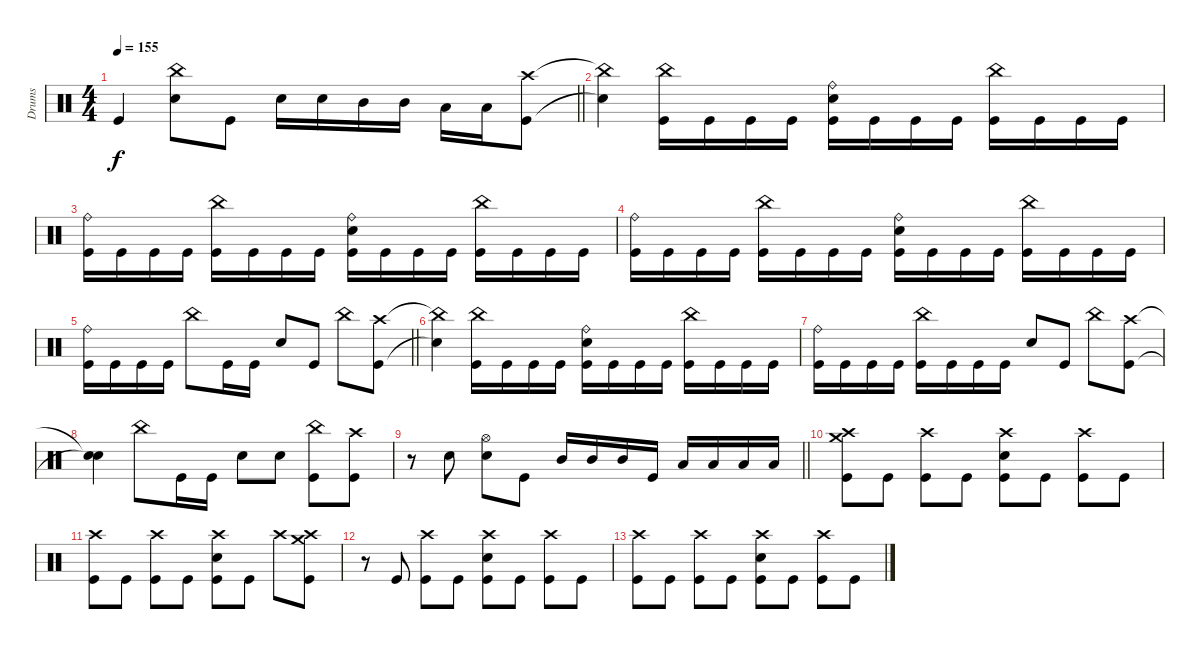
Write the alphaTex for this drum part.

\track ("Drums" "Drums") {instrument percussion}
\staff
\articulation defaults
\ts (4 4)
\tempo 155
\clef neutral
\barLineRight lightlight
\ks c "Kick (hit)"{t}.4{dy f}
("China (hit)" "Electric Snare (hit)").8 "Kick (hit)".8 "Electric Snare (hit)".16 "Electric Snare (hit)".16 "Mid Tom (hit)".16 "Mid Tom (hit)".16 "Low Tom (hit)".16 "Low Tom (hit)".16 ("Crash high (hit)" "Kick (hit)").8 |
("China (hit)"{t} "Snare (hit)"{t}).4 ("China (hit)" "Kick (hit)").16 "Kick (hit)".16 "Kick (hit)".16 "Kick (hit)".16 ("Ride (bell)" "Electric Snare (hit)" "Kick (hit)").16 "Kick (hit)".16 "Kick (hit)".16 "Kick (hit)".16 ("China (hit)" "Kick (hit)").16 "Kick (hit)".16 "Kick (hit)".16 "Kick (hit)".16 |
("Ride (bell)" "Kick (hit)").16 "Kick (hit)".16 "Kick (hit)".16 "Kick (hit)".16 ("China (hit)" "Kick (hit)").16 "Kick (hit)".16 "Kick (hit)".16 "Kick (hit)".16 ("Ride (bell)" "Electric Snare (hit)" "Kick (hit)").16 "Kick (hit)".16 "Kick (hit)".16 "Kick (hit)".16 ("China (hit)" "Kick (hit)").16 "Kick (hit)".16 "Kick (hit)".16 "Kick (hit)".16 |
("Ride (bell)" "Kick (hit)").16 "Kick (hit)".16 "Kick (hit)".16 "Kick (hit)".16 ("China (hit)" "Kick (hit)").16 "Kick (hit)".16 "Kick (hit)".16 "Kick (hit)".16 ("Ride (bell)" "Electric Snare (hit)" "Kick (hit)").16 "Kick (hit)".16 "Kick (hit)".16 "Kick (hit)".16 ("China (hit)" "Kick (hit)").16 "Kick (hit)".16 "Kick (hit)".16 "Kick (hit)".16 |
\barLineRight lightlight
("Ride (bell)" "Kick (hit)").16 "Kick (hit)".16 "Kick (hit)".16 "Kick (hit)".16 "China (hit)".8 "Kick (hit)".16 "Kick (hit)".16 "Electric Snare (hit)".8 "Kick (hit)".8 "China (hit)".8 ("Crash high (hit)" "Kick (hit)").8 |
("China (hit)"{t} "Snare (hit)"{t}).4 ("China (hit)" "Kick (hit)").16 "Kick (hit)".16 "Kick (hit)".16 "Kick (hit)".16 ("Ride (bell)" "Electric Snare (hit)" "Kick (hit)").16 "Kick (hit)".16 "Kick (hit)".16 "Kick (hit)".16 ("China (hit)" "Kick (hit)").16 "Kick (hit)".16 "Kick (hit)".16 "Kick (hit)".16 |
("Ride (bell)" "Kick (hit)").16 "Kick (hit)".16 "Kick (hit)".16 "Kick (hit)".16 ("China (hit)" "Kick (hit)").16 "Kick (hit)".16 "Kick (hit)".16 "Kick (hit)".16 "Electric Snare (hit)".8 "Kick (hit)".8 "China (hit)".8 ("Crash high (hit)" "Kick (hit)").8 |
("Snare (hit)"{t} "Snare (hit)"{t}).4 "China (hit)".8 "Kick (hit)".16 "Kick (hit)".16 "Electric Snare (hit)".8 "Electric Snare (hit)".8 ("China (hit)" "Kick (hit)").8 ("Crash high (hit)" "Kick (hit)").8 |
\barLineRight lightlight
r.8 "Electric Snare (hit)".8 ("Hi-Hat (open)" "Electric Snare (hit)").8 "Kick (hit)".8 "Mid Tom (hit)".16 "Mid Tom (hit)".16 "Mid Tom (hit)".16 "Kick (hit)".16 "Low Tom (hit)".16 "Low Tom (hit)".16 "Low Tom (hit)".16 "Low Tom (hit)".16 |
\section ("" "")
("Crash high (hit)" "Crash medium (hit)" "Kick (hit)").8 "Kick (hit)".8 ("Crash high (hit)" "Kick (hit)").8 "Kick (hit)".8 ("Crash high (hit)" "Electric Snare (hit)" "Kick (hit)").8 "Kick (hit)".8 ("Crash high (hit)" "Kick (hit)").8 "Kick (hit)".8 |
("Crash high (hit)" "Kick (hit)").8 "Kick (hit)".8 ("Crash high (hit)" "Kick (hit)").8 "Kick (hit)".8 ("Crash high (hit)" "Electric Snare (hit)" "Kick (hit)").8 "Kick (hit)".8 "Crash high (hit)".8 ("Crash high (hit)" "Crash medium (hit)" "Kick (hit)").8 |
r.8 "Kick (hit)".8 ("Crash high (hit)" "Kick (hit)").8 "Kick (hit)".8 ("Crash high (hit)" "Electric Snare (hit)" "Kick (hit)").8 "Kick (hit)".8 ("Crash high (hit)" "Kick (hit)").8 "Kick (hit)".8 |
("Crash high (hit)" "Kick (hit)").8 "Kick (hit)".8 ("Crash high (hit)" "Kick (hit)").8 "Kick (hit)".8 ("Crash high (hit)" "Electric Snare (hit)" "Kick (hit)").8 "Kick (hit)".8 ("Crash high (hit)" "Kick (hit)").8 "Kick (hit)".8
